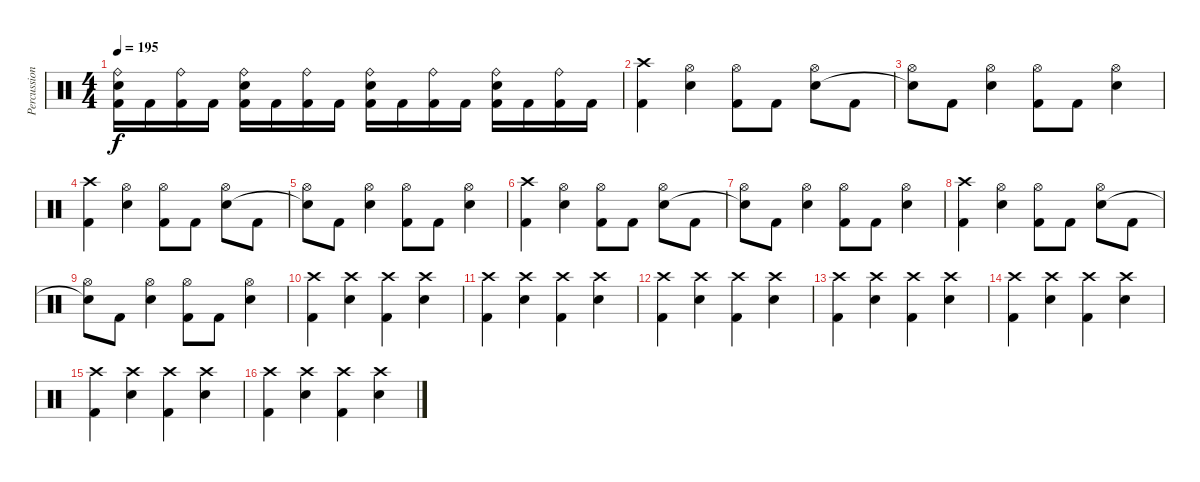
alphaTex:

\track ("Percussion" "Percussion") {instrument percussion}
\staff {score}
\articulation defaults
\ts (4 4)
\tempo 195
\clef neutral
\ks c
("Ride (bell)" "Electric Snare (hit)" "Kick (hit) 2").16{dy f} "Kick (hit) 2".16 ("Ride (bell)" "Kick (hit) 2").16 "Kick (hit) 2".16 ("Ride (bell)" "Electric Snare (hit)" "Kick (hit) 2").16 "Kick (hit) 2".16 ("Ride (bell)" "Kick (hit) 2").16 "Kick (hit) 2".16 ("Ride (bell)" "Electric Snare (hit)" "Kick (hit) 2").16 "Kick (hit) 2".16 ("Ride (bell)" "Kick (hit) 2").16 "Kick (hit) 2".16 ("Ride (bell)" "Electric Snare (hit)" "Kick (hit) 2").16 "Kick (hit) 2".16 ("Ride (bell)" "Kick (hit) 2").16 "Kick (hit) 2".16 |
("Crash high (hit)" "Kick (hit) 2").4 ("Hi-Hat (open)" "Electric Snare (hit)").4 ("Hi-Hat (open)" "Kick (hit) 2").8 "Kick (hit) 2".8 ("Hi-Hat (open)" "Electric Snare (hit)").8 "Kick (hit) 2".8 |
("Hi-Hat (open)" "Snare (hit)"{t}).8 "Kick (hit) 2".8 ("Hi-Hat (open)" "Electric Snare (hit)").4 ("Hi-Hat (open)" "Kick (hit) 2").8 "Kick (hit) 2".8 ("Hi-Hat (open)" "Electric Snare (hit)").4 |
("Crash high (hit)" "Kick (hit) 2").4 ("Hi-Hat (open)" "Electric Snare (hit)").4 ("Hi-Hat (open)" "Kick (hit) 2").8 "Kick (hit) 2".8 ("Hi-Hat (open)" "Electric Snare (hit)").8 "Kick (hit) 2".8 |
("Hi-Hat (open)" "Snare (hit)"{t}).8 "Kick (hit) 2".8 ("Hi-Hat (open)" "Electric Snare (hit)").4 ("Hi-Hat (open)" "Kick (hit) 2").8 "Kick (hit) 2".8 ("Hi-Hat (open)" "Electric Snare (hit)").4 |
("Crash high (hit)" "Kick (hit) 2").4 ("Hi-Hat (open)" "Electric Snare (hit)").4 ("Hi-Hat (open)" "Kick (hit) 2").8 "Kick (hit) 2".8 ("Hi-Hat (open)" "Electric Snare (hit)").8 "Kick (hit) 2".8 |
("Hi-Hat (open)" "Snare (hit)"{t}).8 "Kick (hit) 2".8 ("Hi-Hat (open)" "Electric Snare (hit)").4 ("Hi-Hat (open)" "Kick (hit) 2").8 "Kick (hit) 2".8 ("Hi-Hat (open)" "Electric Snare (hit)").4 |
("Crash high (hit)" "Kick (hit) 2").4 ("Hi-Hat (open)" "Electric Snare (hit)").4 ("Hi-Hat (open)" "Kick (hit) 2").8 "Kick (hit) 2".8 ("Hi-Hat (open)" "Electric Snare (hit)").8 "Kick (hit) 2".8 |
("Hi-Hat (open)" "Snare (hit)"{t}).8 "Kick (hit) 2".8 ("Hi-Hat (open)" "Electric Snare (hit)").4 ("Hi-Hat (open)" "Kick (hit) 2").8 "Kick (hit) 2".8 ("Hi-Hat (open)" "Electric Snare (hit)").4 |
("Crash high (hit)" "Kick (hit) 2").4 ("Crash high (hit)" "Electric Snare (hit)").4 ("Crash high (hit)" "Kick (hit) 2").4 ("Crash high (hit)" "Electric Snare (hit)").4 |
("Crash high (hit)" "Kick (hit) 2").4 ("Crash high (hit)" "Electric Snare (hit)").4 ("Crash high (hit)" "Kick (hit) 2").4 ("Crash high (hit)" "Electric Snare (hit)").4 |
("Crash high (hit)" "Kick (hit) 2").4 ("Crash high (hit)" "Electric Snare (hit)").4 ("Crash high (hit)" "Kick (hit) 2").4 ("Crash high (hit)" "Electric Snare (hit)").4 |
("Crash high (hit)" "Kick (hit) 2").4 ("Crash high (hit)" "Electric Snare (hit)").4 ("Crash high (hit)" "Kick (hit) 2").4 ("Crash high (hit)" "Electric Snare (hit)").4 |
("Crash high (hit)" "Kick (hit) 2").4 ("Crash high (hit)" "Electric Snare (hit)").4 ("Crash high (hit)" "Kick (hit) 2").4 ("Crash high (hit)" "Electric Snare (hit)").4 |
("Crash high (hit)" "Kick (hit) 2").4 ("Crash high (hit)" "Electric Snare (hit)").4 ("Crash high (hit)" "Kick (hit) 2").4 ("Crash high (hit)" "Electric Snare (hit)").4 |
("Crash high (hit)" "Kick (hit) 2").4 ("Crash high (hit)" "Electric Snare (hit)").4 ("Crash high (hit)" "Kick (hit) 2").4 ("Crash high (hit)" "Electric Snare (hit)").4
